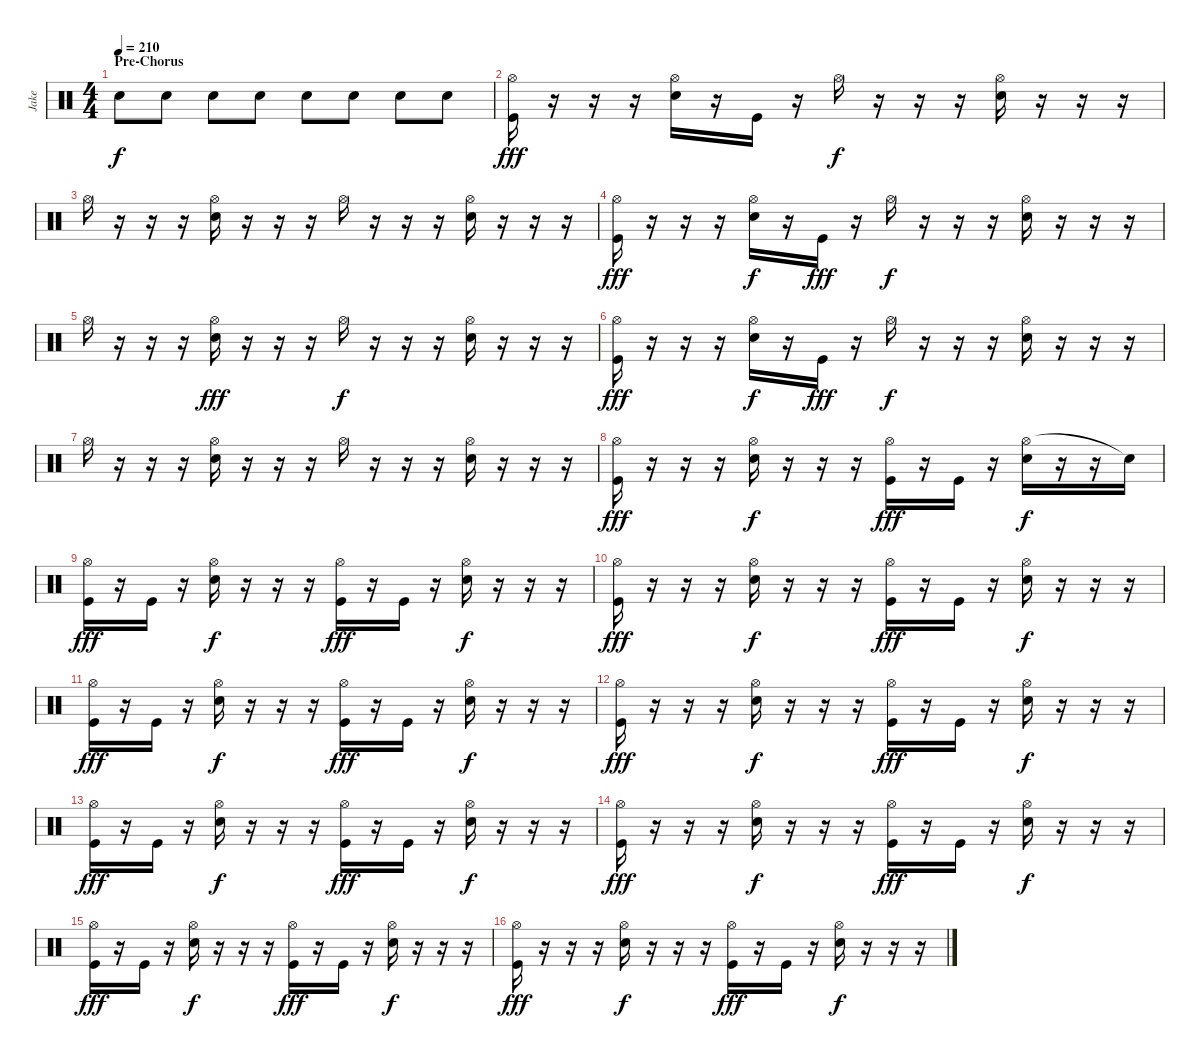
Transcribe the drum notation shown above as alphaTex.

\track ("Jake" "Jake") {instrument percussion}
\staff {score}
\articulation defaults
\ts (4 4)
\section ("" "Pre-Chorus")
\tempo 210
\clef neutral
\ks c "Electric Snare (hit)".8{dy f} "Electric Snare (hit)".8 "Electric Snare (hit)".8 "Electric Snare (hit)".8 "Electric Snare (hit)".8 "Electric Snare (hit)".8 "Electric Snare (hit)".8 "Electric Snare (hit)".8
|
("Hi-Hat (open)" "Kick (hit)").16{dy fff} r.16 r.16 r.16 ("Hi-Hat (open)" "Electric Snare (hit)").16 r.16 "Kick (hit)".16 r.16 "Hi-Hat (open)".16{dy f} r.16 r.16 r.16 ("Hi-Hat (open)" "Electric Snare (hit)").16 r.16 r.16 r.16 |
"Hi-Hat (open)".16 r.16 r.16 r.16 ("Hi-Hat (open)" "Electric Snare (hit)").16 r.16 r.16 r.16 "Hi-Hat (open)".16 r.16 r.16 r.16 ("Hi-Hat (open)" "Electric Snare (hit)").16 r.16 r.16 r.16 |
("Hi-Hat (open)" "Kick (hit)").16{dy fff} r.16 r.16 r.16 ("Hi-Hat (open)" "Electric Snare (hit)").16{dy f} r.16 "Kick (hit)".16{dy fff} r.16 "Hi-Hat (open)".16{dy f} r.16 r.16 r.16 ("Hi-Hat (open)" "Electric Snare (hit)").16 r.16 r.16 r.16 |
"Hi-Hat (open)".16 r.16 r.16 r.16 ("Hi-Hat (open)" "Electric Snare (hit)").16{dy fff} r.16 r.16 r.16 "Hi-Hat (open)".16{dy f} r.16 r.16 r.16 ("Hi-Hat (open)" "Electric Snare (hit)").16 r.16 r.16 r.16 |
("Hi-Hat (open)" "Kick (hit)").16{dy fff} r.16 r.16 r.16 ("Hi-Hat (open)" "Electric Snare (hit)").16{dy f} r.16 "Kick (hit)".16{dy fff} r.16 "Hi-Hat (open)".16{dy f} r.16 r.16 r.16 ("Hi-Hat (open)" "Electric Snare (hit)").16 r.16 r.16 r.16 |
"Hi-Hat (open)".16 r.16 r.16 r.16 ("Hi-Hat (open)" "Electric Snare (hit)").16 r.16 r.16 r.16 "Hi-Hat (open)".16 r.16 r.16 r.16 ("Hi-Hat (open)" "Electric Snare (hit)").16 r.16 r.16 r.16 |
("Hi-Hat (open)" "Kick (hit)").16{dy fff} r.16 r.16 r.16 ("Hi-Hat (open)" "Electric Snare (hit)").16{dy f} r.16 r.16 r.16 ("Hi-Hat (open)" "Kick (hit)").16{dy fff} r.16 "Kick (hit)".16 r.16 ("Hi-Hat (open)" "Electric Snare (hit)").16{dy f} r.16 r.16 "Snare (hit)"{t}.16 |
("Hi-Hat (open)" "Kick (hit)").16{dy fff} r.16 "Kick (hit)".16 r.16 ("Hi-Hat (open)" "Electric Snare (hit)").16{dy f} r.16 r.16 r.16 ("Hi-Hat (open)" "Kick (hit)").16{dy fff} r.16 "Kick (hit)".16 r.16 ("Hi-Hat (open)" "Electric Snare (hit)").16{dy f} r.16 r.16 r.16 |
("Hi-Hat (open)" "Kick (hit)").16{dy fff} r.16 r.16 r.16 ("Hi-Hat (open)" "Electric Snare (hit)").16{dy f} r.16 r.16 r.16 ("Hi-Hat (open)" "Kick (hit)").16{dy fff} r.16 "Kick (hit)".16 r.16 ("Hi-Hat (open)" "Electric Snare (hit)").16{dy f} r.16 r.16 r.16 |
("Hi-Hat (open)" "Kick (hit)").16{dy fff} r.16 "Kick (hit)".16 r.16 ("Hi-Hat (open)" "Electric Snare (hit)").16{dy f} r.16 r.16 r.16 ("Hi-Hat (open)" "Kick (hit)").16{dy fff} r.16 "Kick (hit)".16 r.16 ("Hi-Hat (open)" "Electric Snare (hit)").16{dy f} r.16 r.16 r.16 |
("Hi-Hat (open)" "Kick (hit)").16{dy fff} r.16 r.16 r.16 ("Hi-Hat (open)" "Electric Snare (hit)").16{dy f} r.16 r.16 r.16 ("Hi-Hat (open)" "Kick (hit)").16{dy fff} r.16 "Kick (hit)".16 r.16 ("Hi-Hat (open)" "Electric Snare (hit)").16{dy f} r.16 r.16 r.16 |
("Hi-Hat (open)" "Kick (hit)").16{dy fff} r.16 "Kick (hit)".16 r.16 ("Hi-Hat (open)" "Electric Snare (hit)").16{dy f} r.16 r.16 r.16 ("Hi-Hat (open)" "Kick (hit)").16{dy fff} r.16 "Kick (hit)".16 r.16 ("Hi-Hat (open)" "Electric Snare (hit)").16{dy f} r.16 r.16 r.16 |
("Hi-Hat (open)" "Kick (hit)").16{dy fff} r.16 r.16 r.16 ("Hi-Hat (open)" "Electric Snare (hit)").16{dy f} r.16 r.16 r.16 ("Hi-Hat (open)" "Kick (hit)").16{dy fff} r.16 "Kick (hit)".16 r.16 ("Hi-Hat (open)" "Electric Snare (hit)").16{dy f} r.16 r.16 r.16 |
("Hi-Hat (open)" "Kick (hit)").16{dy fff} r.16 "Kick (hit)".16 r.16 ("Hi-Hat (open)" "Electric Snare (hit)").16{dy f} r.16 r.16 r.16 ("Hi-Hat (open)" "Kick (hit)").16{dy fff} r.16 "Kick (hit)".16 r.16 ("Hi-Hat (open)" "Electric Snare (hit)").16{dy f} r.16 r.16 r.16 |
("Hi-Hat (open)" "Kick (hit)").16{dy fff} r.16 r.16 r.16 ("Hi-Hat (open)" "Electric Snare (hit)").16{dy f} r.16 r.16 r.16 ("Hi-Hat (open)" "Kick (hit)").16{dy fff} r.16 "Kick (hit)".16 r.16 ("Hi-Hat (open)" "Electric Snare (hit)").16{dy f} r.16 r.16 r.16
